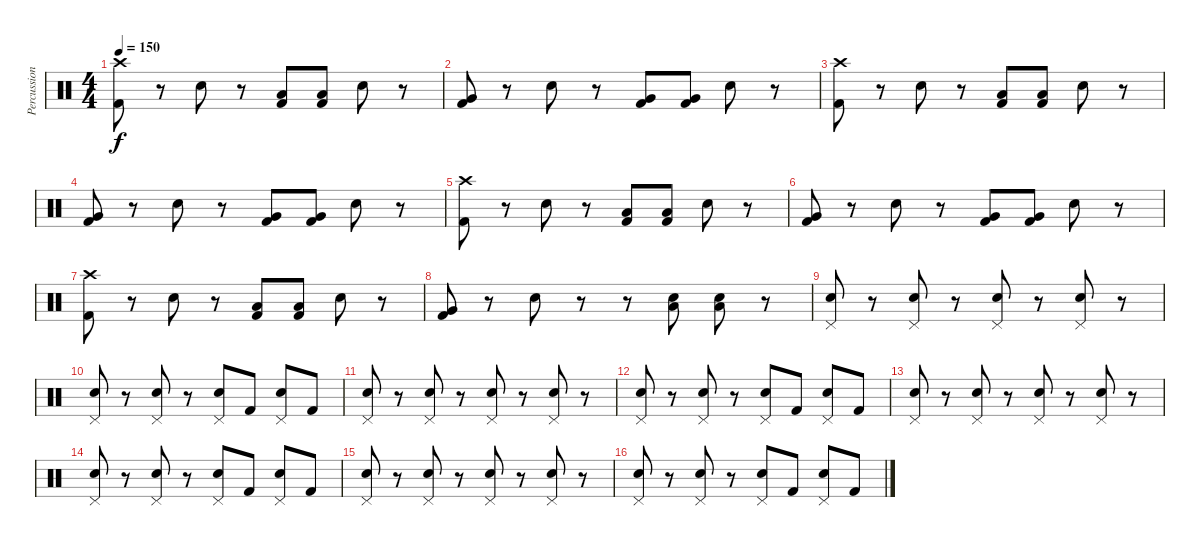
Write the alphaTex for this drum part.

\track ("Percussion" "Percussion") {instrument percussion}
\staff {score}
\articulation defaults
\ts (4 4)
\tempo 150
\clef neutral
\ks c
("Kick (hit) 2" "Crash high (hit)").8{dy f} r.8 "Electric Snare (hit)".8 r.8 ("Low Tom (hit)" "Kick (hit) 2").8 ("Low Tom (hit)" "Kick (hit) 2").8 "Electric Snare (hit)".8 r.8 |
("Very Low Tom (hit)" "Kick (hit) 2").8 r.8 "Electric Snare (hit)".8 r.8 ("Very Low Tom (hit)" "Kick (hit) 2").8 ("Very Low Tom (hit)" "Kick (hit) 2").8 "Electric Snare (hit)".8 r.8 |
("Kick (hit) 2" "Crash high (hit)").8 r.8 "Electric Snare (hit)".8 r.8 ("Low Tom (hit)" "Kick (hit) 2").8 ("Low Tom (hit)" "Kick (hit) 2").8 "Electric Snare (hit)".8 r.8 |
("Very Low Tom (hit)" "Kick (hit) 2").8 r.8 "Electric Snare (hit)".8 r.8 ("Very Low Tom (hit)" "Kick (hit) 2").8 ("Very Low Tom (hit)" "Kick (hit) 2").8 "Electric Snare (hit)".8 r.8 |
("Kick (hit) 2" "Crash high (hit)").8 r.8 "Electric Snare (hit)".8 r.8 ("Low Tom (hit)" "Kick (hit) 2").8 ("Low Tom (hit)" "Kick (hit) 2").8 "Electric Snare (hit)".8 r.8 |
("Very Low Tom (hit)" "Kick (hit) 2").8 r.8 "Electric Snare (hit)".8 r.8 ("Very Low Tom (hit)" "Kick (hit) 2").8 ("Very Low Tom (hit)" "Kick (hit) 2").8 "Electric Snare (hit)".8 r.8 |
("Kick (hit) 2" "Crash high (hit)").8 r.8 "Electric Snare (hit)".8 r.8 ("Low Tom (hit)" "Kick (hit) 2").8 ("Low Tom (hit)" "Kick (hit) 2").8 "Electric Snare (hit)".8 r.8 |
("Very Low Tom (hit)" "Kick (hit) 2").8 r.8 "Electric Snare (hit)".8 r.8 r.8 ("Low Tom (hit)" "Electric Snare (hit)").8 ("Electric Snare (hit)" "Low Tom (hit)").8 r.8 |
("Pedal Hi-Hat (hit)" "Electric Snare (hit)").8 r.8 ("Pedal Hi-Hat (hit)" "Electric Snare (hit)").8 r.8 ("Pedal Hi-Hat (hit)" "Electric Snare (hit)").8 r.8 ("Pedal Hi-Hat (hit)" "Electric Snare (hit)").8 r.8 |
("Pedal Hi-Hat (hit)" "Electric Snare (hit)").8 r.8 ("Pedal Hi-Hat (hit)" "Electric Snare (hit)").8 r.8 ("Pedal Hi-Hat (hit)" "Electric Snare (hit)").8 "Kick (hit) 2".8 ("Pedal Hi-Hat (hit)" "Electric Snare (hit)").8 "Kick (hit) 2".8 |
("Pedal Hi-Hat (hit)" "Electric Snare (hit)").8 r.8 ("Pedal Hi-Hat (hit)" "Electric Snare (hit)").8 r.8 ("Pedal Hi-Hat (hit)" "Electric Snare (hit)").8 r.8 ("Pedal Hi-Hat (hit)" "Electric Snare (hit)").8 r.8 |
("Pedal Hi-Hat (hit)" "Electric Snare (hit)").8 r.8 ("Pedal Hi-Hat (hit)" "Electric Snare (hit)").8 r.8 ("Pedal Hi-Hat (hit)" "Electric Snare (hit)").8 "Kick (hit) 2".8 ("Pedal Hi-Hat (hit)" "Electric Snare (hit)").8 "Kick (hit) 2".8 |
("Pedal Hi-Hat (hit)" "Electric Snare (hit)").8 r.8 ("Pedal Hi-Hat (hit)" "Electric Snare (hit)").8 r.8 ("Pedal Hi-Hat (hit)" "Electric Snare (hit)").8 r.8 ("Pedal Hi-Hat (hit)" "Electric Snare (hit)").8 r.8 |
("Pedal Hi-Hat (hit)" "Electric Snare (hit)").8 r.8 ("Pedal Hi-Hat (hit)" "Electric Snare (hit)").8 r.8 ("Pedal Hi-Hat (hit)" "Electric Snare (hit)").8 "Kick (hit) 2".8 ("Pedal Hi-Hat (hit)" "Electric Snare (hit)").8 "Kick (hit) 2".8 |
("Pedal Hi-Hat (hit)" "Electric Snare (hit)").8 r.8 ("Pedal Hi-Hat (hit)" "Electric Snare (hit)").8 r.8 ("Pedal Hi-Hat (hit)" "Electric Snare (hit)").8 r.8 ("Pedal Hi-Hat (hit)" "Electric Snare (hit)").8 r.8 |
("Pedal Hi-Hat (hit)" "Electric Snare (hit)").8 r.8 ("Pedal Hi-Hat (hit)" "Electric Snare (hit)").8 r.8 ("Pedal Hi-Hat (hit)" "Electric Snare (hit)").8 "Kick (hit) 2".8 ("Pedal Hi-Hat (hit)" "Electric Snare (hit)").8 "Kick (hit) 2".8
